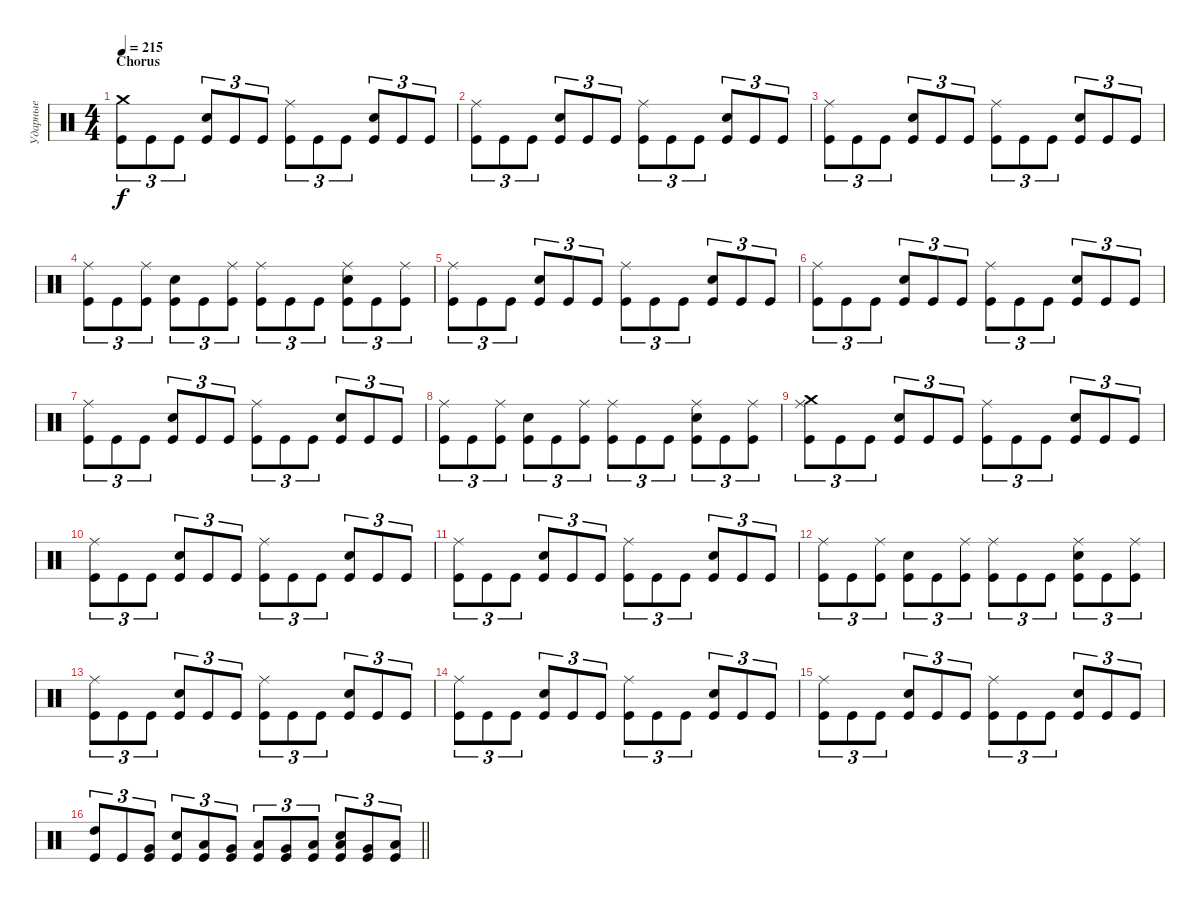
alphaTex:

\track ("Ударные" "Ударные") {instrument percussion}
\staff {score}
\articulation defaults
\ts (4 4)
\section ("" "Chorus")
\tempo 215
\clef neutral
\ks c
("Crash medium (hit)" "Kick (hit)").8{tu (3 2) dy f} "Kick (hit)".8{tu (3 2)} "Kick (hit)".8{tu (3 2)} ("Electric Snare (hit)" "Kick (hit)").8{tu (3 2)} "Kick (hit)".8{tu (3 2)} "Kick (hit)".8{tu (3 2)} ("Ride (middle)" "Kick (hit)").8{tu (3 2)} "Kick (hit)".8{tu (3 2)} "Kick (hit)".8{tu (3 2)} ("Electric Snare (hit)" "Kick (hit)").8{tu (3 2)} "Kick (hit)".8{tu (3 2)} "Kick (hit)".8{tu (3 2)} |
("Ride (middle)" "Kick (hit)").8{tu (3 2)} "Kick (hit)".8{tu (3 2)} "Kick (hit)".8{tu (3 2)} ("Electric Snare (hit)" "Kick (hit)").8{tu (3 2)} "Kick (hit)".8{tu (3 2)} "Kick (hit)".8{tu (3 2)} ("Ride (middle)" "Kick (hit)").8{tu (3 2)} "Kick (hit)".8{tu (3 2)} "Kick (hit)".8{tu (3 2)} ("Electric Snare (hit)" "Kick (hit)").8{tu (3 2)} "Kick (hit)".8{tu (3 2)} "Kick (hit)".8{tu (3 2)} |
("Ride (middle)" "Kick (hit)").8{tu (3 2)} "Kick (hit)".8{tu (3 2)} "Kick (hit)".8{tu (3 2)} ("Electric Snare (hit)" "Kick (hit)").8{tu (3 2)} "Kick (hit)".8{tu (3 2)} "Kick (hit)".8{tu (3 2)} ("Ride (middle)" "Kick (hit)").8{tu (3 2)} "Kick (hit)".8{tu (3 2)} "Kick (hit)".8{tu (3 2)} ("Electric Snare (hit)" "Kick (hit)").8{tu (3 2)} "Kick (hit)".8{tu (3 2)} "Kick (hit)".8{tu (3 2)} |
("Ride (middle)" "Kick (hit)").8{tu (3 2)} "Kick (hit)".8{tu (3 2)} ("Ride (middle)" "Kick (hit)").8{tu (3 2)} ("Electric Snare (hit)" "Kick (hit)").8{tu (3 2)} "Kick (hit)".8{tu (3 2)} ("Ride (middle)" "Kick (hit)").8{tu (3 2)} ("Ride (middle)" "Kick (hit)").8{tu (3 2)} "Kick (hit)".8{tu (3 2)} "Kick (hit)".8{tu (3 2)} ("Ride (middle)" "Electric Snare (hit)" "Kick (hit)").8{tu (3 2)} "Kick (hit)".8{tu (3 2)} ("Ride (middle)" "Kick (hit)").8{tu (3 2)} |
("Ride (middle)" "Kick (hit)").8{tu (3 2)} "Kick (hit)".8{tu (3 2)} "Kick (hit)".8{tu (3 2)} ("Electric Snare (hit)" "Kick (hit)").8{tu (3 2)} "Kick (hit)".8{tu (3 2)} "Kick (hit)".8{tu (3 2)} ("Ride (middle)" "Kick (hit)").8{tu (3 2)} "Kick (hit)".8{tu (3 2)} "Kick (hit)".8{tu (3 2)} ("Electric Snare (hit)" "Kick (hit)").8{tu (3 2)} "Kick (hit)".8{tu (3 2)} "Kick (hit)".8{tu (3 2)} |
("Ride (middle)" "Kick (hit)").8{tu (3 2)} "Kick (hit)".8{tu (3 2)} "Kick (hit)".8{tu (3 2)} ("Electric Snare (hit)" "Kick (hit)").8{tu (3 2)} "Kick (hit)".8{tu (3 2)} "Kick (hit)".8{tu (3 2)} ("Ride (middle)" "Kick (hit)").8{tu (3 2)} "Kick (hit)".8{tu (3 2)} "Kick (hit)".8{tu (3 2)} ("Electric Snare (hit)" "Kick (hit)").8{tu (3 2)} "Kick (hit)".8{tu (3 2)} "Kick (hit)".8{tu (3 2)} |
("Ride (middle)" "Kick (hit)").8{tu (3 2)} "Kick (hit)".8{tu (3 2)} "Kick (hit)".8{tu (3 2)} ("Electric Snare (hit)" "Kick (hit)").8{tu (3 2)} "Kick (hit)".8{tu (3 2)} "Kick (hit)".8{tu (3 2)} ("Ride (middle)" "Kick (hit)").8{tu (3 2)} "Kick (hit)".8{tu (3 2)} "Kick (hit)".8{tu (3 2)} ("Electric Snare (hit)" "Kick (hit)").8{tu (3 2)} "Kick (hit)".8{tu (3 2)} "Kick (hit)".8{tu (3 2)} |
("Ride (middle)" "Kick (hit)").8{tu (3 2)} "Kick (hit)".8{tu (3 2)} ("Ride (middle)" "Kick (hit)").8{tu (3 2)} ("Electric Snare (hit)" "Kick (hit)").8{tu (3 2)} "Kick (hit)".8{tu (3 2)} ("Ride (middle)" "Kick (hit)").8{tu (3 2)} ("Ride (middle)" "Kick (hit)").8{tu (3 2)} "Kick (hit)".8{tu (3 2)} "Kick (hit)".8{tu (3 2)} ("Ride (middle)" "Electric Snare (hit)" "Kick (hit)").8{tu (3 2)} "Kick (hit)".8{tu (3 2)} ("Ride (middle)" "Kick (hit)").8{tu (3 2)} |
("Crash medium (hit)" "Ride (middle)" "Kick (hit)").8{tu (3 2)} "Kick (hit)".8{tu (3 2)} "Kick (hit)".8{tu (3 2)} ("Electric Snare (hit)" "Kick (hit)").8{tu (3 2)} "Kick (hit)".8{tu (3 2)} "Kick (hit)".8{tu (3 2)} ("Ride (middle)" "Kick (hit)").8{tu (3 2)} "Kick (hit)".8{tu (3 2)} "Kick (hit)".8{tu (3 2)} ("Electric Snare (hit)" "Kick (hit)").8{tu (3 2)} "Kick (hit)".8{tu (3 2)} "Kick (hit)".8{tu (3 2)} |
("Ride (middle)" "Kick (hit)").8{tu (3 2)} "Kick (hit)".8{tu (3 2)} "Kick (hit)".8{tu (3 2)} ("Electric Snare (hit)" "Kick (hit)").8{tu (3 2)} "Kick (hit)".8{tu (3 2)} "Kick (hit)".8{tu (3 2)} ("Ride (middle)" "Kick (hit)").8{tu (3 2)} "Kick (hit)".8{tu (3 2)} "Kick (hit)".8{tu (3 2)} ("Electric Snare (hit)" "Kick (hit)").8{tu (3 2)} "Kick (hit)".8{tu (3 2)} "Kick (hit)".8{tu (3 2)} |
("Ride (middle)" "Kick (hit)").8{tu (3 2)} "Kick (hit)".8{tu (3 2)} "Kick (hit)".8{tu (3 2)} ("Electric Snare (hit)" "Kick (hit)").8{tu (3 2)} "Kick (hit)".8{tu (3 2)} "Kick (hit)".8{tu (3 2)} ("Ride (middle)" "Kick (hit)").8{tu (3 2)} "Kick (hit)".8{tu (3 2)} "Kick (hit)".8{tu (3 2)} ("Electric Snare (hit)" "Kick (hit)").8{tu (3 2)} "Kick (hit)".8{tu (3 2)} "Kick (hit)".8{tu (3 2)} |
("Ride (middle)" "Kick (hit)").8{tu (3 2)} "Kick (hit)".8{tu (3 2)} ("Ride (middle)" "Kick (hit)").8{tu (3 2)} ("Electric Snare (hit)" "Kick (hit)").8{tu (3 2)} "Kick (hit)".8{tu (3 2)} ("Ride (middle)" "Kick (hit)").8{tu (3 2)} ("Ride (middle)" "Kick (hit)").8{tu (3 2)} "Kick (hit)".8{tu (3 2)} "Kick (hit)".8{tu (3 2)} ("Ride (middle)" "Electric Snare (hit)" "Kick (hit)").8{tu (3 2)} "Kick (hit)".8{tu (3 2)} ("Ride (middle)" "Kick (hit)").8{tu (3 2)} |
("Ride (middle)" "Kick (hit)").8{tu (3 2)} "Kick (hit)".8{tu (3 2)} "Kick (hit)".8{tu (3 2)} ("Electric Snare (hit)" "Kick (hit)").8{tu (3 2)} "Kick (hit)".8{tu (3 2)} "Kick (hit)".8{tu (3 2)} ("Ride (middle)" "Kick (hit)").8{tu (3 2)} "Kick (hit)".8{tu (3 2)} "Kick (hit)".8{tu (3 2)} ("Electric Snare (hit)" "Kick (hit)").8{tu (3 2)} "Kick (hit)".8{tu (3 2)} "Kick (hit)".8{tu (3 2)} |
("Ride (middle)" "Kick (hit)").8{tu (3 2)} "Kick (hit)".8{tu (3 2)} "Kick (hit)".8{tu (3 2)} ("Electric Snare (hit)" "Kick (hit)").8{tu (3 2)} "Kick (hit)".8{tu (3 2)} "Kick (hit)".8{tu (3 2)} ("Ride (middle)" "Kick (hit)").8{tu (3 2)} "Kick (hit)".8{tu (3 2)} "Kick (hit)".8{tu (3 2)} ("Electric Snare (hit)" "Kick (hit)").8{tu (3 2)} "Kick (hit)".8{tu (3 2)} "Kick (hit)".8{tu (3 2)} |
("Ride (middle)" "Kick (hit)").8{tu (3 2)} "Kick (hit)".8{tu (3 2)} "Kick (hit)".8{tu (3 2)} ("Electric Snare (hit)" "Kick (hit)").8{tu (3 2)} "Kick (hit)".8{tu (3 2)} "Kick (hit)".8{tu (3 2)} ("Ride (middle)" "Kick (hit)").8{tu (3 2)} "Kick (hit)".8{tu (3 2)} "Kick (hit)".8{tu (3 2)} ("Electric Snare (hit)" "Kick (hit)").8{tu (3 2)} "Kick (hit)".8{tu (3 2)} "Kick (hit)".8{tu (3 2)} |
\barLineRight lightlight
("High Tom (hit)" "Kick (hit)").8{tu (3 2)} "Kick (hit)".8{tu (3 2)} ("Very Low Tom (hit)" "Kick (hit)").8{tu (3 2)} ("Electric Snare (hit)" "Kick (hit)").8{tu (3 2)} ("Low Tom (hit)" "Kick (hit)").8{tu (3 2)} ("Very Low Tom (hit)" "Kick (hit)").8{tu (3 2)} ("Low Tom (hit)" "Kick (hit)").8{tu (3 2)} ("Very Low Tom (hit)" "Kick (hit)").8{tu (3 2)} ("Low Floor Tom (hit)" "Kick (hit)").8{tu (3 2)} ("Low Tom (hit)" "Electric Snare (hit)" "Kick (hit)").8{tu (3 2)} ("Very Low Tom (hit)" "Kick (hit)").8{tu (3 2)} ("Low Floor Tom (hit)" "Kick (hit)").8{tu (3 2)}
